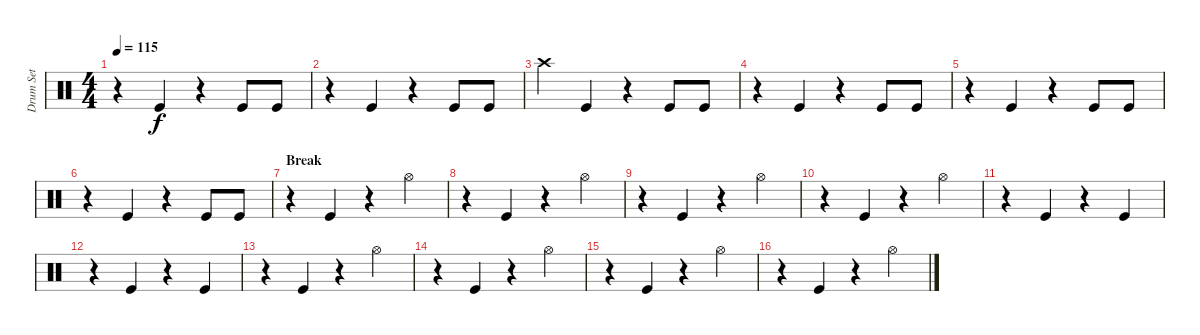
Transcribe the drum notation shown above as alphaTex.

\track ("Drum Set" "Drum Set") {instrument percussion}
\staff {score}
\articulation defaults
\ts (4 4)
\tempo 115
\clef neutral
\ks c
r.4{dy f} "Kick (hit)".4 r.4 "Kick (hit)".8 "Kick (hit)".8 |
r.4 "Kick (hit)".4 r.4 "Kick (hit)".8 "Kick (hit)".8 |
"Crash high (hit)".4 "Kick (hit)".4 r.4 "Kick (hit)".8 "Kick (hit)".8 |
r.4 "Kick (hit)".4 r.4 "Kick (hit)".8 "Kick (hit)".8 |
r.4 "Kick (hit)".4 r.4 "Kick (hit)".8 "Kick (hit)".8 |
r.4 "Kick (hit)".4 r.4 "Kick (hit)".8 "Kick (hit)".8 |
\section ("" "Break")
r.4 "Kick (hit)".4 r.4 "Hi-Hat (open)".4 |
r.4 "Kick (hit)".4 r.4 "Hi-Hat (open)".4 |
r.4 "Kick (hit)".4 r.4 "Hi-Hat (open)".4 |
r.4 "Kick (hit)".4 r.4 "Hi-Hat (open)".4 |
r.4 "Kick (hit)".4 r.4 "Kick (hit)".4 |
r.4 "Kick (hit)".4 r.4 "Kick (hit)".4 |
r.4 "Kick (hit)".4 r.4 "Hi-Hat (open)".4 |
r.4 "Kick (hit)".4 r.4 "Hi-Hat (open)".4 |
r.4 "Kick (hit)".4 r.4 "Hi-Hat (open)".4 |
r.4 "Kick (hit)".4 r.4 "Hi-Hat (open)".4
